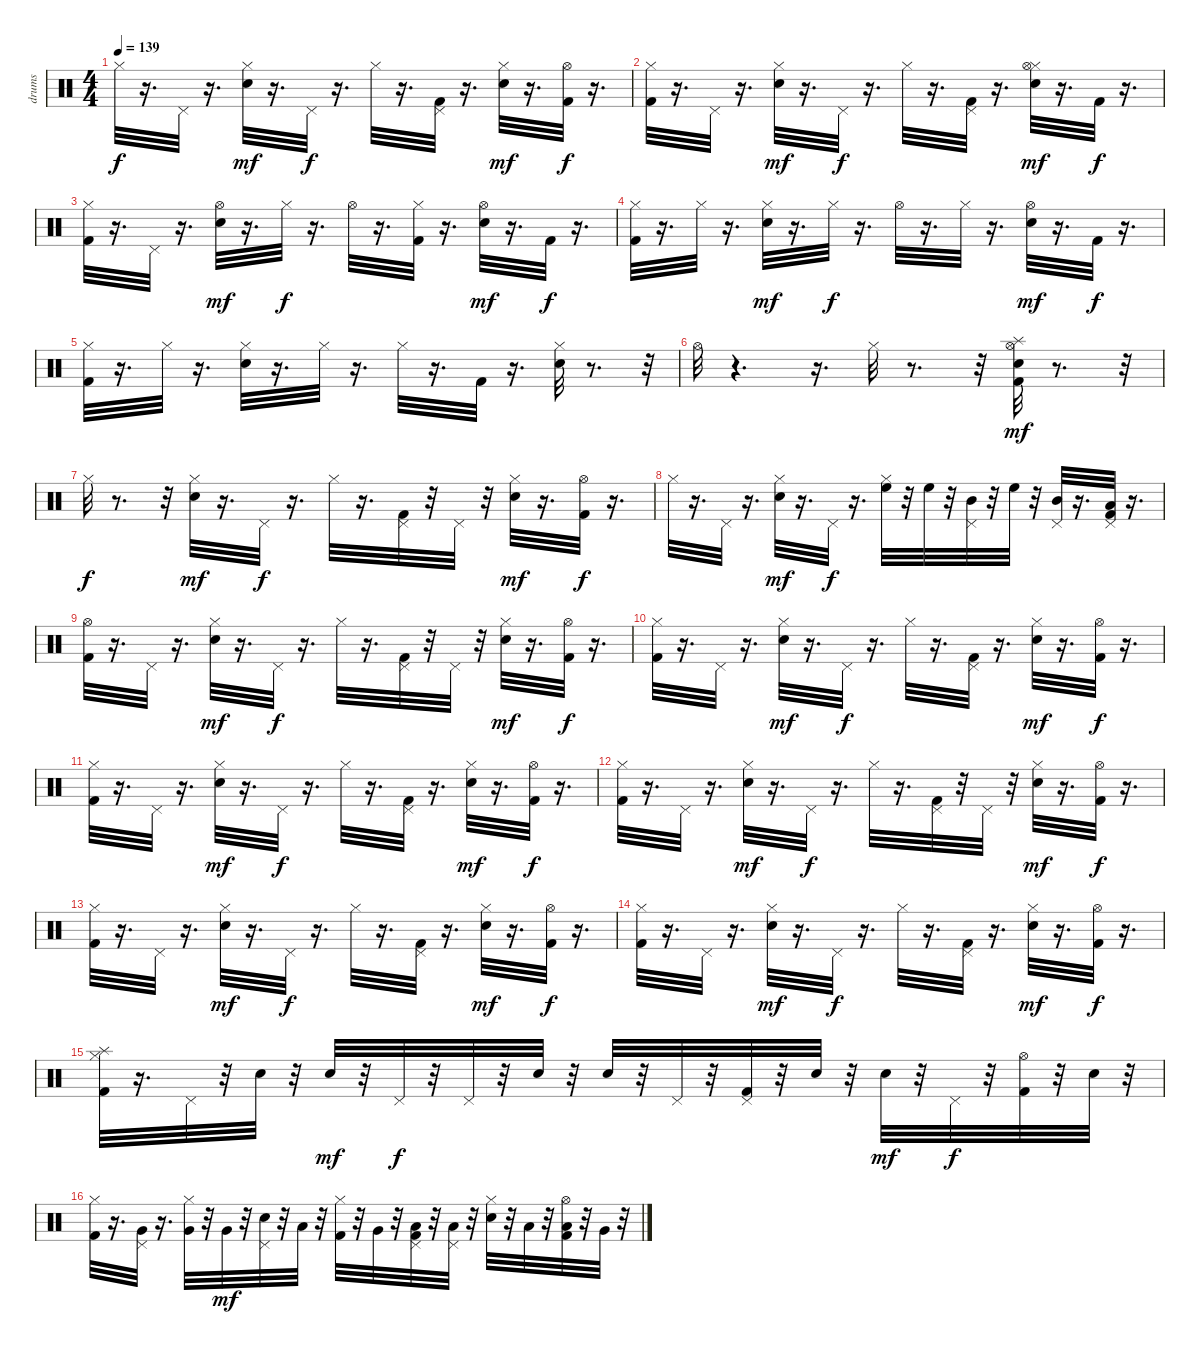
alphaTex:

\track ("drums" "drums") {instrument percussion}
\staff {score}
\articulation defaults
\ts (4 4)
\tempo 139
\clef neutral
\ks c "Hi-Hat (closed)".32{dy f}
r.16{d} "Pedal Hi-Hat (hit)".32 r.16{d} ("Hi-Hat (closed)" "Snare (hit) 2").32{dy mf} r.16{d} "Pedal Hi-Hat (hit)".32{dy f} r.16{d} "Hi-Hat (closed)".32 r.16{d} ("Kick (hit) 2" "Pedal Hi-Hat (hit)").32 r.16{d} ("Hi-Hat (closed)" "Snare (hit) 2").32{dy mf} r.16{d} ("Kick (hit) 2" "Hi-Hat (open)").32{dy f} r.16{d} |
("Hi-Hat (closed)" "Kick (hit) 2").32 r.16{d} "Pedal Hi-Hat (hit)".32 r.16{d} ("Hi-Hat (closed)" "Snare (hit) 2").32{dy mf} r.16{d} "Pedal Hi-Hat (hit)".32{dy f} r.16{d} "Hi-Hat (closed)".32 r.16{d} ("Kick (hit) 2" "Pedal Hi-Hat (hit)").32 r.16{d} ("Hi-Hat (closed)" "Hi-Hat (open)" "Snare (hit) 2").32{dy mf} r.16{d} "Kick (hit) 2".32{dy f} r.16{d} |
("Kick (hit) 2" "Hi-Hat (closed)").32 r.16{d} "Pedal Hi-Hat (hit)".32 r.16{d} ("Hi-Hat (open)" "Snare (hit) 2").32{dy mf} r.16{d} "Hi-Hat (closed)".32{dy f} r.16{d} "Hi-Hat (open)".32 r.16{d} ("Hi-Hat (closed)" "Kick (hit) 2").32 r.16{d} ("Hi-Hat (open)" "Snare (hit) 2").32{dy mf} r.16{d} "Kick (hit) 2".32{dy f} r.16{d} |
("Hi-Hat (closed)" "Kick (hit) 2").32 r.16{d} "Hi-Hat (closed)".32 r.16{d} ("Hi-Hat (closed)" "Snare (hit) 2").32{dy mf} r.16{d} "Hi-Hat (closed)".32{dy f} r.16{d} "Hi-Hat (open)".32 r.16{d} "Hi-Hat (closed)".32 r.16{d} ("Snare (hit) 2" "Hi-Hat (open)").32{dy mf} r.16{d} "Kick (hit) 2".32{dy f} r.16{d} |
("Hi-Hat (closed)" "Kick (hit) 2").32 r.16{d} "Hi-Hat (closed)".32 r.16{d} ("Hi-Hat (closed)" "Snare (hit) 2").32 r.16{d} "Hi-Hat (closed)".32 r.16{d} "Hi-Hat (closed)".32 r.16{d} "Kick (hit) 2".32 r.16{d} ("Hi-Hat (closed)" "Snare (hit) 2").32 r.8{d} r.32 |
"Hi-Hat (open)".32 r.4{d} r.16{d} "Hi-Hat (closed)".32 r.8{d} r.32 ("Hi-Hat (open)" "Snare (hit) 2" "Kick (hit) 2" "Splash (hit)").32{dy mf} r.8{d} r.32 |
"Hi-Hat (closed)".32{dy f} r.8{d} r.32 ("Hi-Hat (closed)" "Snare (hit) 2").32{dy mf} r.16{d} "Pedal Hi-Hat (hit)".32{dy f} r.16{d} "Hi-Hat (closed)".32 r.16{d} ("Kick (hit) 2" "Pedal Hi-Hat (hit)").32 r.32 "Pedal Hi-Hat (hit)".32 r.32 ("Hi-Hat (closed)" "Snare (hit) 2").32{dy mf} r.16{d} ("Kick (hit) 2" "Hi-Hat (open)").32{dy f} r.16{d} |
"Hi-Hat (closed)".32 r.16{d} "Pedal Hi-Hat (hit)".32 r.16{d} ("Hi-Hat (closed)" "Snare (hit) 2").32{dy mf} r.16{d} "Pedal Hi-Hat (hit)".32{dy f} r.16{d} ("Hi-Hat (closed)" "High Floor Tom (hit)").32 r.32 "High Floor Tom (hit)".32 r.32 ("Pedal Hi-Hat (hit)" "Mid Tom (hit)").32 r.32 "High Floor Tom (hit)".32 r.32 ("Mid Tom (hit)" "Pedal Hi-Hat (hit)").32 r.16{d} ("Pedal Hi-Hat (hit)" "Kick (hit) 2" "Low Tom (hit)").32 r.16{d} |
("Hi-Hat (open)" "Kick (hit) 2").32 r.16{d} "Pedal Hi-Hat (hit)".32 r.16{d} ("Snare (hit) 2" "Hi-Hat (closed)").32{dy mf} r.16{d} "Pedal Hi-Hat (hit)".32{dy f} r.16{d} "Hi-Hat (closed)".32 r.16{d} ("Kick (hit) 2" "Pedal Hi-Hat (hit)").32 r.32 "Pedal Hi-Hat (hit)".32 r.32 ("Snare (hit) 2" "Hi-Hat (closed)").32{dy mf} r.16{d} ("Kick (hit) 2" "Hi-Hat (open)").32{dy f} r.16{d} |
("Kick (hit) 2" "Hi-Hat (closed)").32 r.16{d} "Pedal Hi-Hat (hit)".32 r.16{d} ("Hi-Hat (closed)" "Snare (hit) 2").32{dy mf} r.16{d} "Pedal Hi-Hat (hit)".32{dy f} r.16{d} "Hi-Hat (closed)".32 r.16{d} ("Pedal Hi-Hat (hit)" "Kick (hit) 2").32 r.16{d} ("Snare (hit) 2" "Hi-Hat (closed)").32{dy mf} r.16{d} ("Hi-Hat (open)" "Kick (hit) 2").32{dy f} r.16{d} |
("Kick (hit) 2" "Hi-Hat (closed)").32 r.16{d} "Pedal Hi-Hat (hit)".32 r.16{d} ("Hi-Hat (closed)" "Snare (hit) 2").32{dy mf} r.16{d} "Pedal Hi-Hat (hit)".32{dy f} r.16{d} "Hi-Hat (closed)".32 r.16{d} ("Kick (hit) 2" "Pedal Hi-Hat (hit)").32 r.16{d} ("Snare (hit) 2" "Hi-Hat (closed)").32{dy mf} r.16{d} ("Kick (hit) 2" "Hi-Hat (open)").32{dy f} r.16{d} |
("Hi-Hat (closed)" "Kick (hit) 2").32 r.16{d} "Pedal Hi-Hat (hit)".32 r.16{d} ("Snare (hit) 2" "Hi-Hat (closed)").32{dy mf} r.16{d} "Pedal Hi-Hat (hit)".32{dy f} r.16{d} "Hi-Hat (closed)".32 r.16{d} ("Kick (hit) 2" "Pedal Hi-Hat (hit)").32 r.32 "Pedal Hi-Hat (hit)".32 r.32 ("Snare (hit) 2" "Hi-Hat (closed)").32{dy mf} r.16{d} ("Kick (hit) 2" "Hi-Hat (open)").32{dy f} r.16{d} |
("Hi-Hat (closed)" "Kick (hit) 2").32 r.16{d} "Pedal Hi-Hat (hit)".32 r.16{d} ("Hi-Hat (closed)" "Snare (hit) 2").32{dy mf} r.16{d} "Pedal Hi-Hat (hit)".32{dy f} r.16{d} "Hi-Hat (closed)".32 r.16{d} ("Kick (hit) 2" "Pedal Hi-Hat (hit)").32 r.16{d} ("Snare (hit) 2" "Hi-Hat (closed)").32{dy mf} r.16{d} ("Kick (hit) 2" "Hi-Hat (open)").32{dy f} r.16{d} |
("Kick (hit) 2" "Hi-Hat (closed)").32 r.16{d} "Pedal Hi-Hat (hit)".32 r.16{d} ("Hi-Hat (closed)" "Snare (hit) 2").32{dy mf} r.16{d} "Pedal Hi-Hat (hit)".32{dy f} r.16{d} "Hi-Hat (closed)".32 r.16{d} ("Pedal Hi-Hat (hit)" "Kick (hit) 2").32 r.16{d} ("Hi-Hat (closed)" "Snare (hit) 2").32{dy mf} r.16{d} ("Hi-Hat (open)" "Kick (hit) 2").32{dy f} r.16{d} |
("Hi-Hat (closed)" "Splash (hit)" "Kick (hit) 2").32 r.16{d} "Pedal Hi-Hat (hit)".32 r.32 "Snare (hit) 2".32 r.32 "Snare (hit) 2".32{dy mf} r.32 "Pedal Hi-Hat (hit)".32{dy f} r.32 "Pedal Hi-Hat (hit)".32 r.32 "Snare (hit) 2".32 r.32 "Snare (hit) 2".32 r.32 "Pedal Hi-Hat (hit)".32 r.32 ("Kick (hit) 2" "Pedal Hi-Hat (hit)").32 r.32 "Snare (hit) 2".32 r.32 "Snare (hit) 2".32{dy mf} r.32 "Pedal Hi-Hat (hit)".32{dy f} r.32 ("Hi-Hat (open)" "Kick (hit) 2").32 r.32 "Snare (hit) 2".32 r.32 |
("Hi-Hat (closed)" "Kick (hit) 2").32 r.16{d} ("Very Low Tom (hit)" "Pedal Hi-Hat (hit)").32 r.16{d} ("Very Low Tom (hit)" "Hi-Hat (closed)").32 r.32 "Very Low Tom (hit)".32{dy mf} r.32 ("Snare (hit) 2" "Pedal Hi-Hat (hit)").32 r.32 "Low Floor Tom (hit)".32 r.32 ("Kick (hit) 2" "Hi-Hat (closed)").32 r.32 "Very Low Tom (hit)".32 r.32 ("Pedal Hi-Hat (hit)" "Low Floor Tom (hit)" "Kick (hit) 2").32 r.32 ("Low Floor Tom (hit)" "Pedal Hi-Hat (hit)").32 r.32 ("Hi-Hat (closed)" "Snare (hit) 2").32 r.32 "Low Floor Tom (hit)".32 r.32 ("Hi-Hat (open)" "Kick (hit) 2" "Low Floor Tom (hit)").32 r.32 "Very Low Tom (hit)".32 r.32
